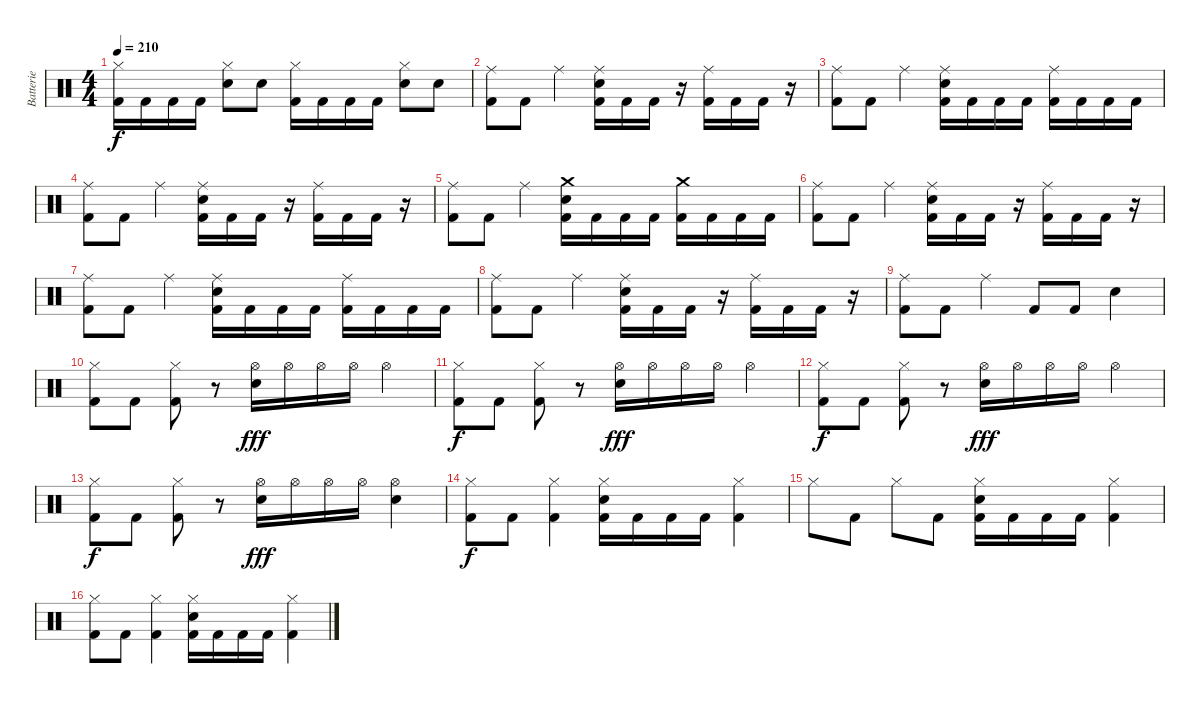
\track ("Batterie" "Batterie") {instrument percussion}
\staff {score}
\articulation defaults
\ts (4 4)
\tempo 210
\clef neutral
\ks c
("Hi-Hat (closed)" "Kick (hit) 2").16{dy f} "Kick (hit) 2".16 "Kick (hit) 2".16 "Kick (hit) 2".16 ("Hi-Hat (closed)" "Electric Snare (hit)").8 "Electric Snare (hit)".8 ("Hi-Hat (closed)" "Kick (hit) 2").16 "Kick (hit) 2".16 "Kick (hit) 2".16 "Kick (hit) 2".16 ("Hi-Hat (closed)" "Electric Snare (hit)").8 "Electric Snare (hit)".8 |
("Ride (middle)" "Kick (hit) 2").8 "Kick (hit) 2".8 "Ride (middle)".4 ("Ride (middle)" "Electric Snare (hit)" "Kick (hit) 2").16 "Kick (hit) 2".16 "Kick (hit) 2".16 r.16 ("Ride (middle)" "Kick (hit) 2").16 "Kick (hit) 2".16 "Kick (hit) 2".16 r.16 |
("Ride (middle)" "Kick (hit) 2").8 "Kick (hit) 2".8 "Ride (middle)".4 ("Ride (middle)" "Electric Snare (hit)" "Kick (hit) 2").16 "Kick (hit) 2".16 "Kick (hit) 2".16 "Kick (hit) 2".16 ("Ride (middle)" "Kick (hit) 2").16 "Kick (hit) 2".16 "Kick (hit) 2".16 "Kick (hit) 2".16 |
("Ride (middle)" "Kick (hit) 2").8 "Kick (hit) 2".8 "Ride (middle)".4 ("Ride (middle)" "Electric Snare (hit)" "Kick (hit) 2").16 "Kick (hit) 2".16 "Kick (hit) 2".16 r.16 ("Ride (middle)" "Kick (hit) 2").16 "Kick (hit) 2".16 "Kick (hit) 2".16 r.16 |
("Ride (middle)" "Kick (hit) 2").8 "Kick (hit) 2".8 "Ride (middle)".4 ("Crash medium (hit)" "Electric Snare (hit)" "Kick (hit) 2").16 "Kick (hit) 2".16 "Kick (hit) 2".16 "Kick (hit) 2".16 ("Crash medium (hit)" "Kick (hit) 2").16 "Kick (hit) 2".16 "Kick (hit) 2".16 "Kick (hit) 2".16 |
("Ride (middle)" "Kick (hit) 2").8 "Kick (hit) 2".8 "Ride (middle)".4 ("Ride (middle)" "Electric Snare (hit)" "Kick (hit) 2").16 "Kick (hit) 2".16 "Kick (hit) 2".16 r.16 ("Ride (middle)" "Kick (hit) 2").16 "Kick (hit) 2".16 "Kick (hit) 2".16 r.16 |
("Ride (middle)" "Kick (hit) 2").8 "Kick (hit) 2".8 "Ride (middle)".4 ("Ride (middle)" "Electric Snare (hit)" "Kick (hit) 2").16 "Kick (hit) 2".16 "Kick (hit) 2".16 "Kick (hit) 2".16 ("Ride (middle)" "Kick (hit) 2").16 "Kick (hit) 2".16 "Kick (hit) 2".16 "Kick (hit) 2".16 |
("Ride (middle)" "Kick (hit) 2").8 "Kick (hit) 2".8 "Ride (middle)".4 ("Ride (middle)" "Electric Snare (hit)" "Kick (hit) 2").16 "Kick (hit) 2".16 "Kick (hit) 2".16 r.16 ("Ride (middle)" "Kick (hit) 2").16 "Kick (hit) 2".16 "Kick (hit) 2".16 r.16 |
("Ride (middle)" "Kick (hit) 2").8 "Kick (hit) 2".8 "Ride (middle)".4 "Kick (hit) 2".8 "Kick (hit) 2".8 "Electric Snare (hit)".4 |
("Hi-Hat (closed)" "Kick (hit) 2").8 "Kick (hit) 2".8 ("Hi-Hat (closed)" "Kick (hit) 2").8 r.8 ("Hi-Hat (open)" "Electric Snare (hit)").16{dy fff} "Hi-Hat (open)".16 "Hi-Hat (open)".16 "Hi-Hat (open)".16 "Hi-Hat (open)".4 |
("Hi-Hat (closed)" "Kick (hit) 2").8{dy f} "Kick (hit) 2".8 ("Hi-Hat (closed)" "Kick (hit) 2").8 r.8 ("Hi-Hat (open)" "Electric Snare (hit)").16{dy fff} "Hi-Hat (open)".16 "Hi-Hat (open)".16 "Hi-Hat (open)".16 "Hi-Hat (open)".4 |
("Hi-Hat (closed)" "Kick (hit) 2").8{dy f} "Kick (hit) 2".8 ("Hi-Hat (closed)" "Kick (hit) 2").8 r.8 ("Hi-Hat (open)" "Electric Snare (hit)").16{dy fff} "Hi-Hat (open)".16 "Hi-Hat (open)".16 "Hi-Hat (open)".16 "Hi-Hat (open)".4 |
("Hi-Hat (closed)" "Kick (hit) 2").8{dy f} "Kick (hit) 2".8 ("Hi-Hat (closed)" "Kick (hit) 2").8 r.8 ("Hi-Hat (open)" "Electric Snare (hit)").16{dy fff} "Hi-Hat (open)".16 "Hi-Hat (open)".16 "Hi-Hat (open)".16 ("Hi-Hat (open)" "Electric Snare (hit)").4 |
("Hi-Hat (closed)" "Kick (hit) 2").8{dy f} "Kick (hit) 2".8 ("Hi-Hat (closed)" "Kick (hit) 2").4 ("Hi-Hat (closed)" "Electric Snare (hit)" "Kick (hit) 2").16 "Kick (hit) 2".16 "Kick (hit) 2".16 "Kick (hit) 2".16 ("Hi-Hat (closed)" "Kick (hit) 2").4 |
"Hi-Hat (closed)".8 "Kick (hit) 2".8 "Hi-Hat (closed)".8 "Kick (hit) 2".8 ("Hi-Hat (closed)" "Electric Snare (hit)" "Kick (hit) 2").16 "Kick (hit) 2".16 "Kick (hit) 2".16 "Kick (hit) 2".16 ("Hi-Hat (closed)" "Kick (hit) 2").4 |
("Hi-Hat (closed)" "Kick (hit) 2").8 "Kick (hit) 2".8 ("Hi-Hat (closed)" "Kick (hit) 2").4 ("Hi-Hat (closed)" "Electric Snare (hit)" "Kick (hit) 2").16 "Kick (hit) 2".16 "Kick (hit) 2".16 "Kick (hit) 2".16 ("Hi-Hat (closed)" "Kick (hit) 2").4
